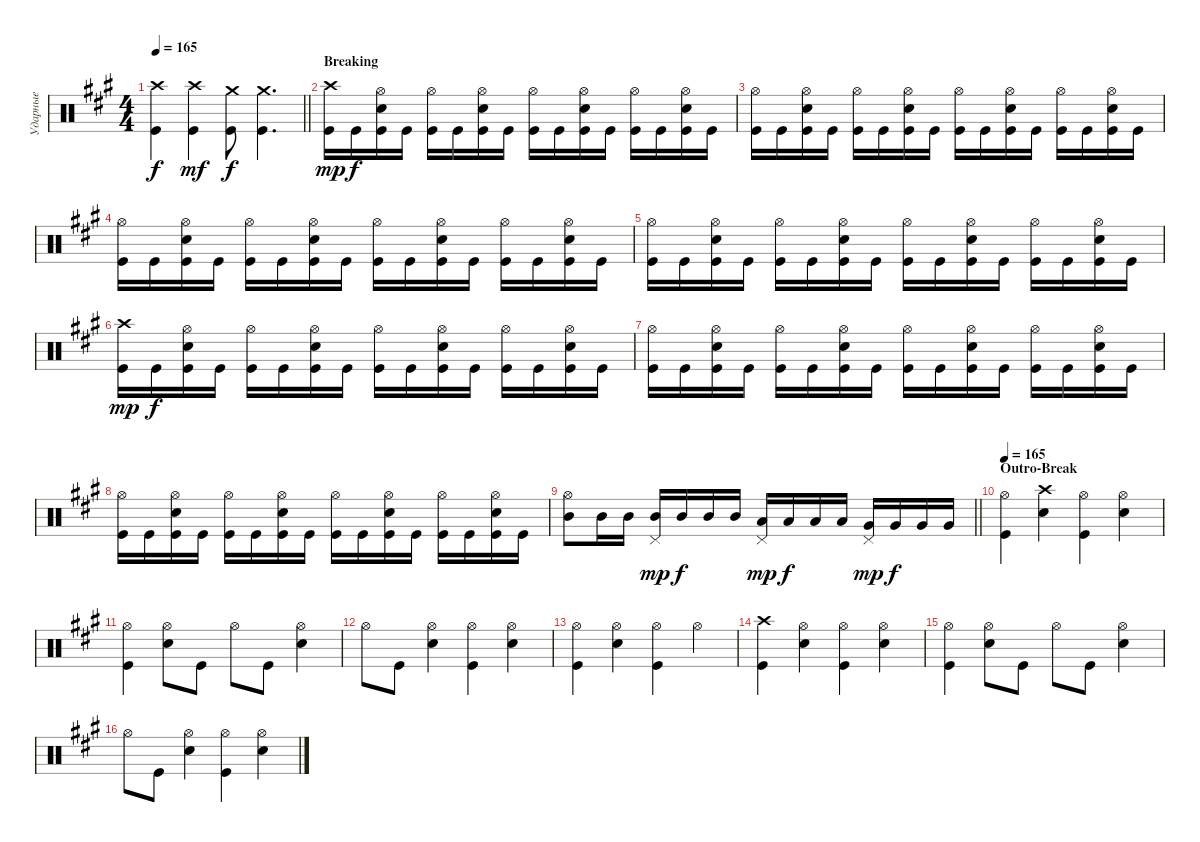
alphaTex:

\track ("Ударные" "Ударные") {instrument percussion}
\staff {score}
\articulation defaults
\ts (4 4)
\tempo 165
\clef neutral
\barLineRight lightlight
\ks f#minor
("Kick (hit)" "Crash high (hit)").4{dy f} ("Kick (hit)" "Crash high (hit)").4{dy mf} ("Kick (hit)" "Crash medium (hit)").8{dy f} ("Kick (hit)" "Crash medium (hit)").4{d} |
\section ("" "Breaking")
("Kick (hit)" "Crash high (hit)").16{dy mp} "Kick (hit)".16{dy f} ("Kick (hit)" "Snare (hit) 2" "Hi-Hat (open)").16 "Kick (hit)".16 ("Kick (hit)" "Hi-Hat (open)").16 "Kick (hit)".16 ("Kick (hit)" "Snare (hit) 2" "Hi-Hat (open)").16 "Kick (hit)".16 ("Kick (hit)" "Hi-Hat (open)").16 "Kick (hit)".16 ("Kick (hit)" "Snare (hit) 2" "Hi-Hat (open)").16 "Kick (hit)".16 ("Kick (hit)" "Hi-Hat (open)").16 "Kick (hit)".16 ("Kick (hit)" "Snare (hit) 2" "Hi-Hat (open)").16 "Kick (hit)".16 |
("Kick (hit)" "Hi-Hat (open)").16 "Kick (hit)".16 ("Kick (hit)" "Snare (hit) 2" "Hi-Hat (open)").16 "Kick (hit)".16 ("Kick (hit)" "Hi-Hat (open)").16 "Kick (hit)".16 ("Kick (hit)" "Snare (hit) 2" "Hi-Hat (open)").16 "Kick (hit)".16 ("Kick (hit)" "Hi-Hat (open)").16 "Kick (hit)".16 ("Kick (hit)" "Snare (hit) 2" "Hi-Hat (open)").16 "Kick (hit)".16 ("Kick (hit)" "Hi-Hat (open)").16 "Kick (hit)".16 ("Kick (hit)" "Snare (hit) 2" "Hi-Hat (open)").16 "Kick (hit)".16 |
("Kick (hit)" "Hi-Hat (open)").16 "Kick (hit)".16 ("Kick (hit)" "Snare (hit) 2" "Hi-Hat (open)").16 "Kick (hit)".16 ("Kick (hit)" "Hi-Hat (open)").16 "Kick (hit)".16 ("Kick (hit)" "Snare (hit) 2" "Hi-Hat (open)").16 "Kick (hit)".16 ("Kick (hit)" "Hi-Hat (open)").16 "Kick (hit)".16 ("Kick (hit)" "Snare (hit) 2" "Hi-Hat (open)").16 "Kick (hit)".16 ("Kick (hit)" "Hi-Hat (open)").16 "Kick (hit)".16 ("Kick (hit)" "Snare (hit) 2" "Hi-Hat (open)").16 "Kick (hit)".16 |
("Kick (hit)" "Hi-Hat (open)").16 "Kick (hit)".16 ("Kick (hit)" "Snare (hit) 2" "Hi-Hat (open)").16 "Kick (hit)".16 ("Kick (hit)" "Hi-Hat (open)").16 "Kick (hit)".16 ("Kick (hit)" "Snare (hit) 2" "Hi-Hat (open)").16 "Kick (hit)".16 ("Kick (hit)" "Hi-Hat (open)").16 "Kick (hit)".16 ("Kick (hit)" "Snare (hit) 2" "Hi-Hat (open)").16 "Kick (hit)".16 ("Kick (hit)" "Hi-Hat (open)").16 "Kick (hit)".16 ("Kick (hit)" "Snare (hit) 2" "Hi-Hat (open)").16 "Kick (hit)".16 |
("Kick (hit)" "Crash high (hit)").16{dy mp} "Kick (hit)".16{dy f} ("Kick (hit)" "Snare (hit) 2" "Hi-Hat (open)").16 "Kick (hit)".16 ("Kick (hit)" "Hi-Hat (open)").16 "Kick (hit)".16 ("Kick (hit)" "Snare (hit) 2" "Hi-Hat (open)").16 "Kick (hit)".16 ("Kick (hit)" "Hi-Hat (open)").16 "Kick (hit)".16 ("Kick (hit)" "Snare (hit) 2" "Hi-Hat (open)").16 "Kick (hit)".16 ("Kick (hit)" "Hi-Hat (open)").16 "Kick (hit)".16 ("Kick (hit)" "Snare (hit) 2" "Hi-Hat (open)").16 "Kick (hit)".16 |
("Kick (hit)" "Hi-Hat (open)").16 "Kick (hit)".16 ("Kick (hit)" "Snare (hit) 2" "Hi-Hat (open)").16 "Kick (hit)".16 ("Kick (hit)" "Hi-Hat (open)").16 "Kick (hit)".16 ("Kick (hit)" "Snare (hit) 2" "Hi-Hat (open)").16 "Kick (hit)".16 ("Kick (hit)" "Hi-Hat (open)").16 "Kick (hit)".16 ("Kick (hit)" "Snare (hit) 2" "Hi-Hat (open)").16 "Kick (hit)".16 ("Kick (hit)" "Hi-Hat (open)").16 "Kick (hit)".16 ("Kick (hit)" "Snare (hit) 2" "Hi-Hat (open)").16 "Kick (hit)".16 |
("Kick (hit)" "Hi-Hat (open)").16 "Kick (hit)".16 ("Kick (hit)" "Snare (hit) 2" "Hi-Hat (open)").16 "Kick (hit)".16 ("Kick (hit)" "Hi-Hat (open)").16 "Kick (hit)".16 ("Kick (hit)" "Snare (hit) 2" "Hi-Hat (open)").16 "Kick (hit)".16 ("Kick (hit)" "Hi-Hat (open)").16 "Kick (hit)".16 ("Kick (hit)" "Snare (hit) 2" "Hi-Hat (open)").16 "Kick (hit)".16 ("Kick (hit)" "Hi-Hat (open)").16 "Kick (hit)".16 ("Kick (hit)" "Snare (hit) 2" "Hi-Hat (open)").16 "Kick (hit)".16 |
\barLineRight lightlight
("Mid Tom (hit)" "Hi-Hat (open)").8 "Mid Tom (hit)".16 "Mid Tom (hit)".16 ("Pedal Hi-Hat (hit)" "Mid Tom (hit)").16{dy mp} "Mid Tom (hit)".16{dy f} "Mid Tom (hit)".16 "Mid Tom (hit)".16 ("Low Tom (hit)" "Pedal Hi-Hat (hit)").16{dy mp} "Low Tom (hit)".16{dy f} "Low Tom (hit)".16 "Low Tom (hit)".16 ("Very Low Tom (hit)" "Pedal Hi-Hat (hit)").16{dy mp} "Very Low Tom (hit)".16{dy f} "Very Low Tom (hit)".16 "Very Low Tom (hit)".16 |
\section ("" "Outro-Break")
\tempo 165
("Kick (hit)" "Hi-Hat (open)").4 ("Snare (hit) 2" "Crash high (hit)").4 ("Kick (hit)" "Hi-Hat (open)").4 ("Snare (hit) 2" "Hi-Hat (open)").4 |
("Hi-Hat (open)" "Kick (hit)").4 ("Hi-Hat (open)" "Snare (hit) 2").8 "Kick (hit)".8 "Hi-Hat (open)".8 "Kick (hit)".8 ("Hi-Hat (open)" "Snare (hit) 2").4 |
"Hi-Hat (open)".8 "Kick (hit)".8 ("Snare (hit) 2" "Hi-Hat (open)").4 ("Kick (hit)" "Hi-Hat (open)").4 ("Snare (hit) 2" "Hi-Hat (open)").4 |
("Kick (hit)" "Hi-Hat (open)").4 ("Snare (hit) 2" "Hi-Hat (open)").4 ("Hi-Hat (open)" "Kick (hit)").4 "Hi-Hat (open)".4 |
("Kick (hit)" "Crash high (hit)").4 ("Snare (hit) 2" "Hi-Hat (open)").4 ("Kick (hit)" "Hi-Hat (open)").4 ("Snare (hit) 2" "Hi-Hat (open)").4 |
("Hi-Hat (open)" "Kick (hit)").4 ("Hi-Hat (open)" "Snare (hit) 2").8 "Kick (hit)".8 "Hi-Hat (open)".8 "Kick (hit)".8 ("Hi-Hat (open)" "Snare (hit) 2").4 |
"Hi-Hat (open)".8 "Kick (hit)".8 ("Snare (hit) 2" "Hi-Hat (open)").4 ("Kick (hit)" "Hi-Hat (open)").4 ("Snare (hit) 2" "Hi-Hat (open)").4
